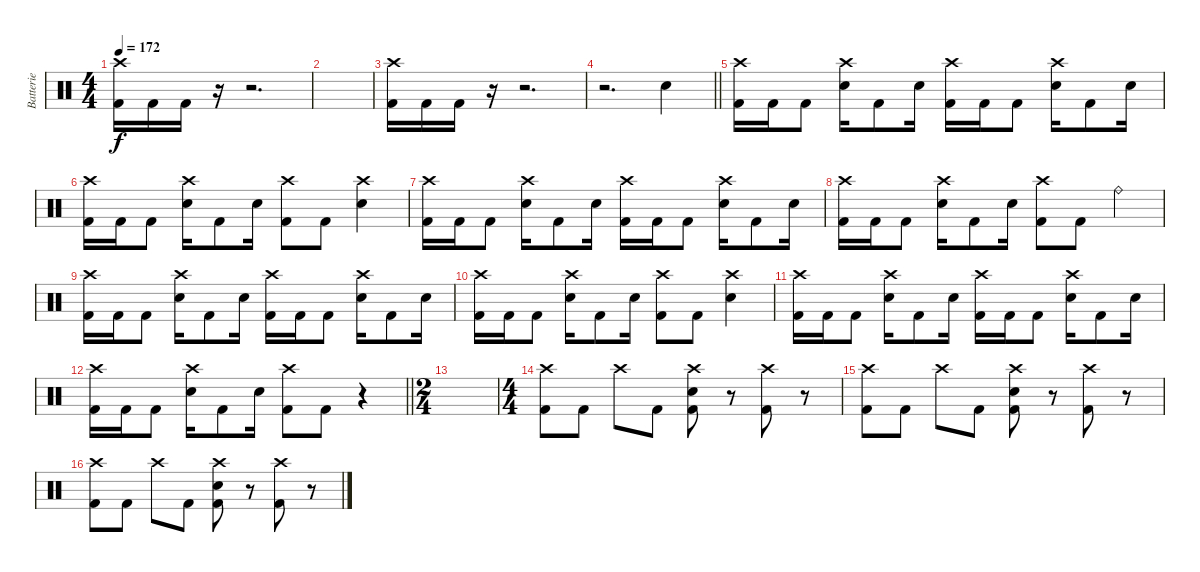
\track ("Batterie" "Batterie") {instrument percussion}
\staff {score}
\articulation defaults
\ts (4 4)
\tempo 172
\clef neutral
\ks c
("Crash high (hit)" "Kick (hit) 2").16{dy f} "Kick (hit) 2".16 "Kick (hit) 2".16 r.16 r.2{d} |
|
("Crash high (hit)" "Kick (hit) 2").16 "Kick (hit) 2".16 "Kick (hit) 2".16 r.16 r.2{d} |
\barLineRight lightlight
r.2{d} "Electric Snare (hit)".4 |
("Crash high (hit)" "Kick (hit) 2").16 "Kick (hit) 2".16 "Kick (hit) 2".8 ("Crash high (hit)" "Electric Snare (hit)").16 "Kick (hit) 2".8 "Electric Snare (hit)".16 ("Crash high (hit)" "Kick (hit) 2").16 "Kick (hit) 2".16 "Kick (hit) 2".8 ("Crash high (hit)" "Electric Snare (hit)").16 "Kick (hit) 2".8 "Electric Snare (hit)".16 |
("Crash high (hit)" "Kick (hit) 2").16 "Kick (hit) 2".16 "Kick (hit) 2".8 ("Crash high (hit)" "Electric Snare (hit)").16 "Kick (hit) 2".8 "Electric Snare (hit)".16 ("Crash high (hit)" "Kick (hit) 2").8 "Kick (hit) 2".8 ("Crash high (hit)" "Electric Snare (hit)").4 |
("Crash high (hit)" "Kick (hit) 2").16 "Kick (hit) 2".16 "Kick (hit) 2".8 ("Crash high (hit)" "Electric Snare (hit)").16 "Kick (hit) 2".8 "Electric Snare (hit)".16 ("Crash high (hit)" "Kick (hit) 2").16 "Kick (hit) 2".16 "Kick (hit) 2".8 ("Crash high (hit)" "Electric Snare (hit)").16 "Kick (hit) 2".8 "Electric Snare (hit)".16 |
("Crash high (hit)" "Kick (hit) 2").16 "Kick (hit) 2".16 "Kick (hit) 2".8 ("Crash high (hit)" "Electric Snare (hit)").16 "Kick (hit) 2".8 "Electric Snare (hit)".16 ("Crash high (hit)" "Kick (hit) 2").8 "Kick (hit) 2".8 "Ride (bell)".4 |
("Crash high (hit)" "Kick (hit) 2").16 "Kick (hit) 2".16 "Kick (hit) 2".8 ("Crash high (hit)" "Electric Snare (hit)").16 "Kick (hit) 2".8 "Electric Snare (hit)".16 ("Crash high (hit)" "Kick (hit) 2").16 "Kick (hit) 2".16 "Kick (hit) 2".8 ("Crash high (hit)" "Electric Snare (hit)").16 "Kick (hit) 2".8 "Electric Snare (hit)".16 |
("Crash high (hit)" "Kick (hit) 2").16 "Kick (hit) 2".16 "Kick (hit) 2".8 ("Crash high (hit)" "Electric Snare (hit)").16 "Kick (hit) 2".8 "Electric Snare (hit)".16 ("Crash high (hit)" "Kick (hit) 2").8 "Kick (hit) 2".8 ("Crash high (hit)" "Electric Snare (hit)").4 |
("Crash high (hit)" "Kick (hit) 2").16 "Kick (hit) 2".16 "Kick (hit) 2".8 ("Crash high (hit)" "Electric Snare (hit)").16 "Kick (hit) 2".8 "Electric Snare (hit)".16 ("Crash high (hit)" "Kick (hit) 2").16 "Kick (hit) 2".16 "Kick (hit) 2".8 ("Crash high (hit)" "Electric Snare (hit)").16 "Kick (hit) 2".8 "Electric Snare (hit)".16 |
\barLineRight lightlight
("Crash high (hit)" "Kick (hit) 2").16 "Kick (hit) 2".16 "Kick (hit) 2".8 ("Crash high (hit)" "Electric Snare (hit)").16 "Kick (hit) 2".8 "Electric Snare (hit)".16 ("Crash high (hit)" "Kick (hit) 2").8 "Kick (hit) 2".8 r.4 |
\ts (2 4)
|
\ts (4 4)
("Crash high (hit)" "Kick (hit) 2").8 "Kick (hit) 2".8 "Crash high (hit)".8 "Kick (hit) 2".8 ("Crash high (hit)" "Electric Snare (hit)" "Kick (hit) 2").8 r.8 ("Crash high (hit)" "Kick (hit) 2").8 r.8 |
("Crash high (hit)" "Kick (hit) 2").8 "Kick (hit) 2".8 "Crash high (hit)".8 "Kick (hit) 2".8 ("Crash high (hit)" "Electric Snare (hit)" "Kick (hit) 2").8 r.8 ("Crash high (hit)" "Kick (hit) 2").8 r.8 |
("Crash high (hit)" "Kick (hit) 2").8 "Kick (hit) 2".8 "Crash high (hit)".8 "Kick (hit) 2".8 ("Crash high (hit)" "Electric Snare (hit)" "Kick (hit) 2").8 r.8 ("Crash high (hit)" "Kick (hit) 2").8 r.8
